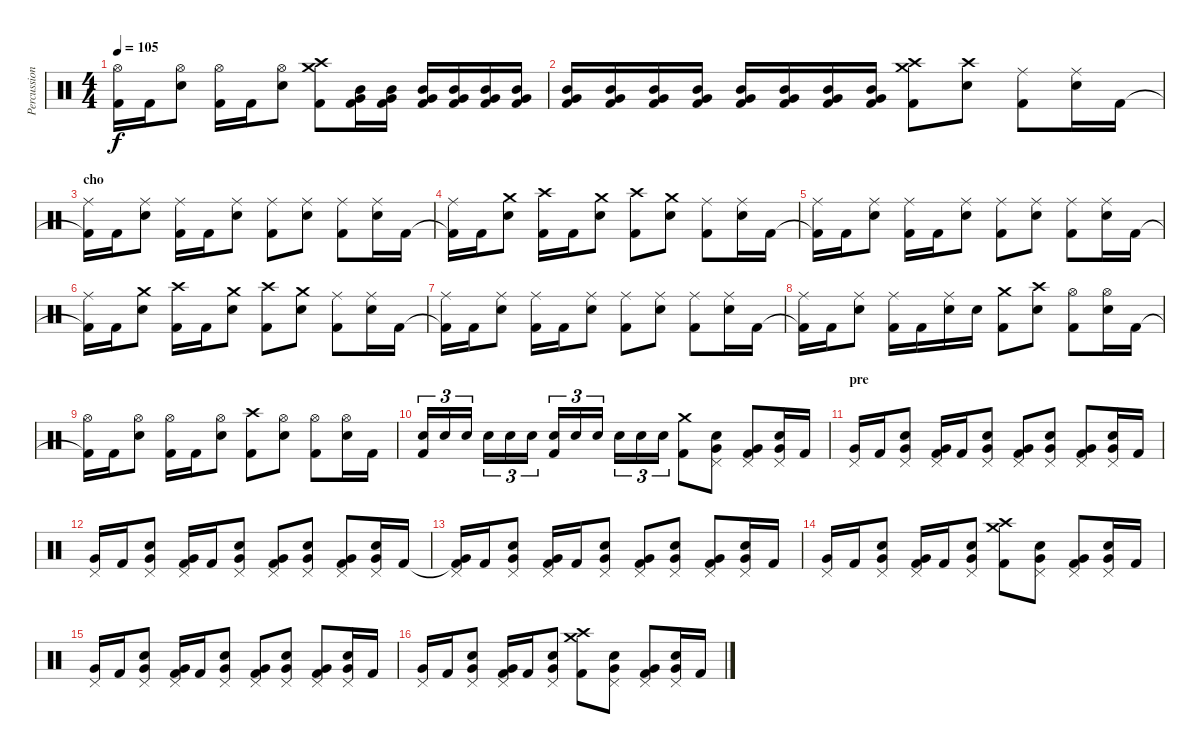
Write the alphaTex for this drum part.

\track ("Percussion" "Percussion") {instrument percussion}
\staff {score}
\articulation defaults
\ts (4 4)
\tempo 105
\clef neutral
\ks c
("Kick (hit) 2"{t} "Hi-Hat (open)").16{dy f} "Kick (hit) 2".16 ("Electric Snare (hit)" "Hi-Hat (open)").8 ("Kick (hit) 2" "Hi-Hat (open)").16 "Kick (hit) 2".16 ("Electric Snare (hit)" "Hi-Hat (open)").8 ("Kick (hit) 2" "Crash high (hit)" "Crash medium (hit)").8 ("Kick (hit) 2" "Very Low Tom (hit)" "Mid Tom (hit)").16 ("Kick (hit) 2" "Very Low Tom (hit)" "Mid Tom (hit)").16 ("Kick (hit) 2" "Very Low Tom (hit)" "Mid Tom (hit)").16 ("Kick (hit) 2" "Very Low Tom (hit)" "Mid Tom (hit)").16 ("Kick (hit) 2" "Very Low Tom (hit)" "Mid Tom (hit)").16 ("Kick (hit) 2" "Very Low Tom (hit)" "Mid Tom (hit)").16 |
("Kick (hit) 2" "Very Low Tom (hit)" "Mid Tom (hit)").16 ("Kick (hit) 2" "Very Low Tom (hit)" "Mid Tom (hit)").16 ("Kick (hit) 2" "Very Low Tom (hit)" "Mid Tom (hit)").16 ("Kick (hit) 2" "Very Low Tom (hit)" "Mid Tom (hit)").16 ("Kick (hit) 2" "Very Low Tom (hit)" "Mid Tom (hit)").16 ("Kick (hit) 2" "Very Low Tom (hit)" "Mid Tom (hit)").16 ("Kick (hit) 2" "Very Low Tom (hit)" "Mid Tom (hit)").16 ("Kick (hit) 2" "Very Low Tom (hit)" "Mid Tom (hit)").16 ("Kick (hit) 2" "Crash high (hit)" "Crash medium (hit)").8 ("Electric Snare (hit)" "Crash high (hit)").8 ("Kick (hit) 2" "Ride (middle)").8 ("Electric Snare (hit)" "Ride (middle)").16 "Kick (hit) 2".16 |
\section ("" "cho")
("Kick (hit) 2"{t} "Ride (middle)").16 "Kick (hit) 2".16 ("Electric Snare (hit)" "Ride (middle)").8 ("Kick (hit) 2" "Ride (middle)").16 "Kick (hit) 2".16 ("Electric Snare (hit)" "Ride (middle)").8 ("Kick (hit) 2" "Ride (middle)").8 ("Electric Snare (hit)" "Ride (middle)").8 ("Kick (hit) 2" "Ride (middle)").8 ("Electric Snare (hit)" "Ride (middle)").16 "Kick (hit) 2".16 |
("Kick (hit) 2"{t} "Ride (middle)").16 "Kick (hit) 2".16 ("Electric Snare (hit)" "Crash medium (hit)").8 ("Kick (hit) 2" "Crash high (hit)").16 "Kick (hit) 2".16 ("Electric Snare (hit)" "Crash medium (hit)").8 ("Kick (hit) 2" "Crash high (hit)").8 ("Electric Snare (hit)" "Crash medium (hit)").8 ("Kick (hit) 2" "Ride (middle)").8 ("Electric Snare (hit)" "Ride (middle)").16 "Kick (hit) 2".16 |
("Kick (hit) 2"{t} "Ride (middle)").16 "Kick (hit) 2".16 ("Electric Snare (hit)" "Ride (middle)").8 ("Kick (hit) 2" "Ride (middle)").16 "Kick (hit) 2".16 ("Electric Snare (hit)" "Ride (middle)").8 ("Kick (hit) 2" "Ride (middle)").8 ("Electric Snare (hit)" "Ride (middle)").8 ("Kick (hit) 2" "Ride (middle)").8 ("Electric Snare (hit)" "Ride (middle)").16 "Kick (hit) 2".16 |
("Kick (hit) 2"{t} "Ride (middle)").16 "Kick (hit) 2".16 ("Electric Snare (hit)" "Crash medium (hit)").8 ("Kick (hit) 2" "Crash high (hit)").16 "Kick (hit) 2".16 ("Electric Snare (hit)" "Crash medium (hit)").8 ("Kick (hit) 2" "Crash high (hit)").8 ("Electric Snare (hit)" "Crash medium (hit)").8 ("Kick (hit) 2" "Ride (middle)").8 ("Electric Snare (hit)" "Ride (middle)").16 "Kick (hit) 2".16 |
("Kick (hit) 2"{t} "Ride (middle)").16 "Kick (hit) 2".16 ("Electric Snare (hit)" "Ride (middle)").8 ("Kick (hit) 2" "Ride (middle)").16 "Kick (hit) 2".16 ("Electric Snare (hit)" "Ride (middle)").8 ("Kick (hit) 2" "Ride (middle)").8 ("Electric Snare (hit)" "Ride (middle)").8 ("Kick (hit) 2" "Ride (middle)").8 ("Electric Snare (hit)" "Ride (middle)").16 "Kick (hit) 2".16 |
("Kick (hit) 2"{t} "Ride (middle)").16 "Kick (hit) 2".16 ("Electric Snare (hit)" "Ride (middle)").8 ("Kick (hit) 2" "Ride (middle)").16 "Kick (hit) 2".16 ("Electric Snare (hit)" "Ride (middle)").16 "Electric Snare (hit)".16 ("Kick (hit) 2" "Crash medium (hit)").8 ("Electric Snare (hit)" "Crash high (hit)").8 ("Kick (hit) 2" "Hi-Hat (open)").8 ("Electric Snare (hit)" "Hi-Hat (open)").16 "Kick (hit) 2".16 |
("Kick (hit) 2"{t} "Hi-Hat (open)").16 "Kick (hit) 2".16 ("Electric Snare (hit)" "Hi-Hat (open)").8 ("Kick (hit) 2" "Hi-Hat (open)").16 "Kick (hit) 2".16 ("Electric Snare (hit)" "Hi-Hat (open)").8 ("Kick (hit) 2" "Crash high (hit)").8 ("Electric Snare (hit)" "Hi-Hat (open)").8 ("Kick (hit) 2" "Hi-Hat (open)").8 ("Electric Snare (hit)" "Hi-Hat (open)").16 "Kick (hit) 2".16 |
("Kick (hit) 2" "Electric Snare (hit)").16{tu (3 2)} "Electric Snare (hit)".16{tu (3 2)} "Electric Snare (hit)".16{tu (3 2)} "Electric Snare (hit)".16{tu (3 2)} "Electric Snare (hit)".16{tu (3 2)} "Electric Snare (hit)".16{tu (3 2)} ("Kick (hit) 2" "Electric Snare (hit)").16{tu (3 2)} "Electric Snare (hit)".16{tu (3 2)} "Electric Snare (hit)".16{tu (3 2)} "Electric Snare (hit)".16{tu (3 2)} "Electric Snare (hit)".16{tu (3 2)} "Electric Snare (hit)".16{tu (3 2)} ("Kick (hit) 2" "Crash medium (hit)").8 ("Electric Snare (hit)" "Very Low Tom (hit)" "Pedal Hi-Hat (hit)").8 ("Kick (hit) 2" "Very Low Tom (hit)" "Pedal Hi-Hat (hit)").8 ("Electric Snare (hit)" "Very Low Tom (hit)" "Pedal Hi-Hat (hit)").16 "Kick (hit) 2".16 |
\section ("" "pre")
("Very Low Tom (hit)" "Pedal Hi-Hat (hit)").16 "Kick (hit) 2".16 ("Electric Snare (hit)" "Very Low Tom (hit)" "Pedal Hi-Hat (hit)").8 ("Kick (hit) 2" "Very Low Tom (hit)" "Pedal Hi-Hat (hit)").16 "Kick (hit) 2".16 ("Electric Snare (hit)" "Very Low Tom (hit)" "Pedal Hi-Hat (hit)").8 ("Kick (hit) 2" "Very Low Tom (hit)" "Pedal Hi-Hat (hit)").8 ("Electric Snare (hit)" "Very Low Tom (hit)" "Pedal Hi-Hat (hit)").8 ("Kick (hit) 2" "Very Low Tom (hit)" "Pedal Hi-Hat (hit)").8 ("Electric Snare (hit)" "Very Low Tom (hit)" "Pedal Hi-Hat (hit)").16 "Kick (hit) 2".16 |
("Very Low Tom (hit)" "Pedal Hi-Hat (hit)").16 "Kick (hit) 2".16 ("Electric Snare (hit)" "Very Low Tom (hit)" "Pedal Hi-Hat (hit)").8 ("Kick (hit) 2" "Very Low Tom (hit)" "Pedal Hi-Hat (hit)").16 "Kick (hit) 2".16 ("Electric Snare (hit)" "Very Low Tom (hit)" "Pedal Hi-Hat (hit)").8 ("Kick (hit) 2" "Very Low Tom (hit)" "Pedal Hi-Hat (hit)").8 ("Electric Snare (hit)" "Very Low Tom (hit)" "Pedal Hi-Hat (hit)").8 ("Kick (hit) 2" "Very Low Tom (hit)" "Pedal Hi-Hat (hit)").8 ("Electric Snare (hit)" "Very Low Tom (hit)" "Pedal Hi-Hat (hit)").16 "Kick (hit) 2".16 |
("Kick (hit) 2"{t} "Very Low Tom (hit)" "Pedal Hi-Hat (hit)").16 "Kick (hit) 2".16 ("Electric Snare (hit)" "Very Low Tom (hit)" "Pedal Hi-Hat (hit)").8 ("Kick (hit) 2" "Very Low Tom (hit)" "Pedal Hi-Hat (hit)").16 "Kick (hit) 2".16 ("Electric Snare (hit)" "Very Low Tom (hit)" "Pedal Hi-Hat (hit)").8 ("Kick (hit) 2" "Very Low Tom (hit)" "Pedal Hi-Hat (hit)").8 ("Electric Snare (hit)" "Very Low Tom (hit)" "Pedal Hi-Hat (hit)").8 ("Kick (hit) 2" "Very Low Tom (hit)" "Pedal Hi-Hat (hit)").8 ("Electric Snare (hit)" "Very Low Tom (hit)" "Pedal Hi-Hat (hit)").16 "Kick (hit) 2".16 |
("Very Low Tom (hit)" "Pedal Hi-Hat (hit)").16 "Kick (hit) 2".16 ("Electric Snare (hit)" "Very Low Tom (hit)" "Pedal Hi-Hat (hit)").8 ("Kick (hit) 2" "Very Low Tom (hit)" "Pedal Hi-Hat (hit)").16 "Kick (hit) 2".16 ("Electric Snare (hit)" "Very Low Tom (hit)" "Pedal Hi-Hat (hit)").8 ("Kick (hit) 2" "Crash high (hit)" "Crash medium (hit)").8 ("Electric Snare (hit)" "Very Low Tom (hit)" "Pedal Hi-Hat (hit)").8 ("Kick (hit) 2" "Very Low Tom (hit)" "Pedal Hi-Hat (hit)").8 ("Electric Snare (hit)" "Very Low Tom (hit)" "Pedal Hi-Hat (hit)").16 "Kick (hit) 2".16 |
("Very Low Tom (hit)" "Pedal Hi-Hat (hit)").16 "Kick (hit) 2".16 ("Electric Snare (hit)" "Very Low Tom (hit)" "Pedal Hi-Hat (hit)").8 ("Kick (hit) 2" "Very Low Tom (hit)" "Pedal Hi-Hat (hit)").16 "Kick (hit) 2".16 ("Electric Snare (hit)" "Very Low Tom (hit)" "Pedal Hi-Hat (hit)").8 ("Kick (hit) 2" "Very Low Tom (hit)" "Pedal Hi-Hat (hit)").8 ("Electric Snare (hit)" "Very Low Tom (hit)" "Pedal Hi-Hat (hit)").8 ("Kick (hit) 2" "Very Low Tom (hit)" "Pedal Hi-Hat (hit)").8 ("Electric Snare (hit)" "Very Low Tom (hit)" "Pedal Hi-Hat (hit)").16 "Kick (hit) 2".16 |
("Very Low Tom (hit)" "Pedal Hi-Hat (hit)").16 "Kick (hit) 2".16 ("Electric Snare (hit)" "Very Low Tom (hit)" "Pedal Hi-Hat (hit)").8 ("Kick (hit) 2" "Very Low Tom (hit)" "Pedal Hi-Hat (hit)").16 "Kick (hit) 2".16 ("Electric Snare (hit)" "Very Low Tom (hit)" "Pedal Hi-Hat (hit)").8 ("Kick (hit) 2" "Crash medium (hit)" "Crash high (hit)").8 ("Electric Snare (hit)" "Very Low Tom (hit)" "Pedal Hi-Hat (hit)").8 ("Kick (hit) 2" "Very Low Tom (hit)" "Pedal Hi-Hat (hit)").8 ("Electric Snare (hit)" "Very Low Tom (hit)" "Pedal Hi-Hat (hit)").16 "Kick (hit) 2".16
